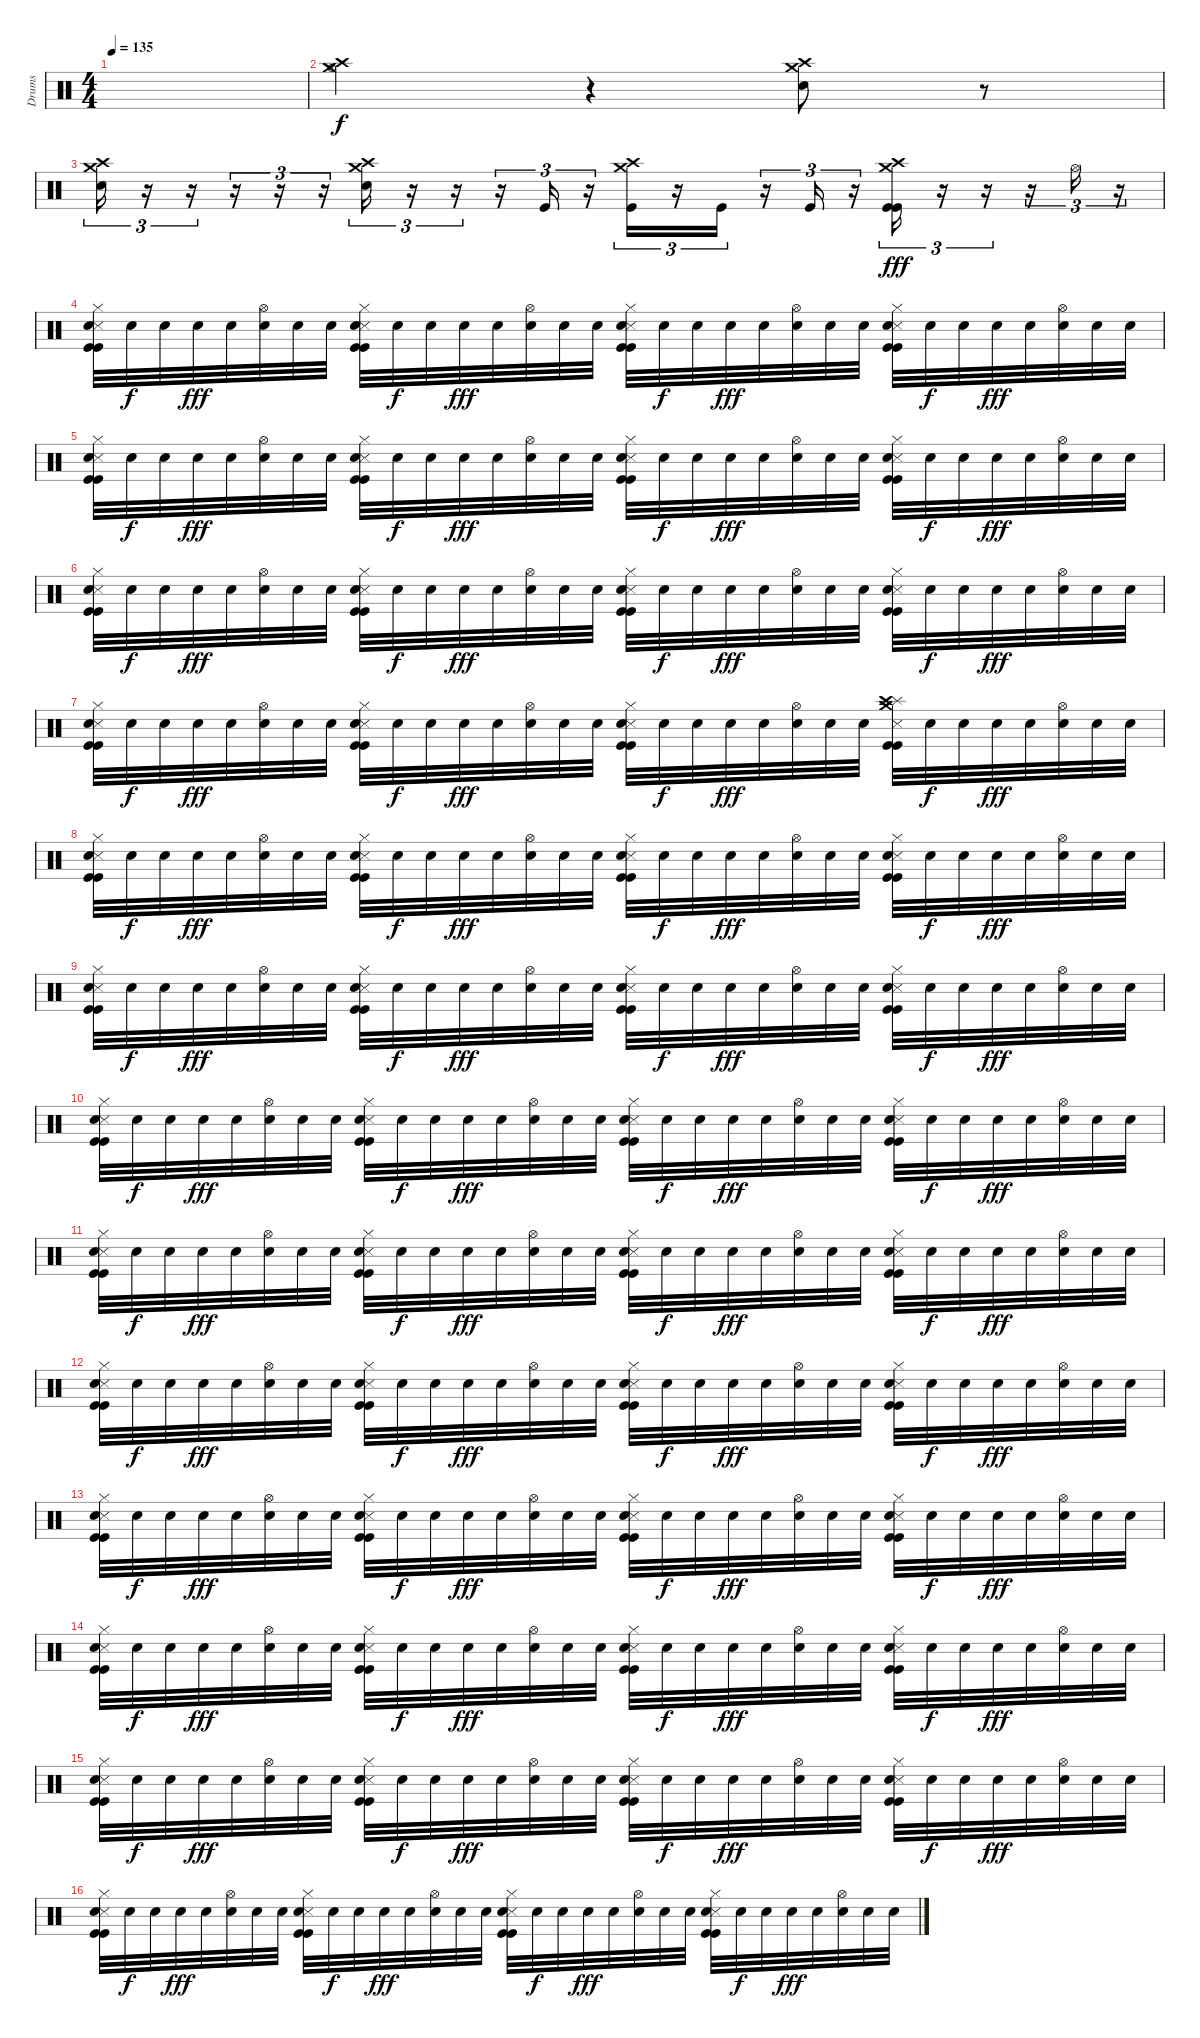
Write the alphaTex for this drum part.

\track ("Drums" "Drums") {instrument percussion bank 24}
\staff
\articulation defaults
\ts (4 4)
\tempo 135
\clef neutral
\ks c
|
("Hi-Hat (open)" "Crash high (hit)" "Crash medium (hit)").2 r.4 ("Crash medium (hit)" "Electric Snare (hit)" "Crash high (hit)").8 r.8 |
("Crash medium (hit)" "Electric Snare (hit)" "Crash high (hit)").16{tu (3 2)} r.16{tu (3 2)} r.16{tu (3 2)} r.16{tu (3 2)} r.16{tu (3 2)} r.16{tu (3 2)} ("Crash medium (hit)" "Electric Snare (hit)" "Crash high (hit)").16{tu (3 2)} r.16{tu (3 2)} r.16{tu (3 2)} r.16{tu (3 2)} "Kick (hit)".16{tu (3 2)} r.16{tu (3 2)} ("Crash high (hit)" "Crash medium (hit)" "Kick (hit)").16{tu (3 2)} r.16{tu (3 2)} "Kick (hit)".16{tu (3 2)} r.16{tu (3 2)} "Kick (hit)".16{tu (3 2)} r.16{tu (3 2)} ("Crash high (hit)" "Crash medium (hit)" "Kick (hit)" "Kick (hit)").16{tu (3 2) dy fff} r.16{tu (3 2)} r.16{tu (3 2)} r.16{tu (3 2)} "Hi-Hat (open)".16{tu (3 2)} r.16{tu (3 2)} |
("Hi-Hat (closed)" "Metronome (hit)" "Kick (hit)" "Kick (hit)" "Snare (hit) 2").32 "Snare (hit)".32{dy f} "Snare (hit)".32 "Snare (hit)".32{dy fff} "Snare (hit)".32 ("Hi-Hat (open)" "Snare (hit)").32 "Snare (hit)".32 "Snare (hit)".32 ("Hi-Hat (closed)" "Metronome (hit)" "Kick (hit)" "Kick (hit)" "Snare (hit)").32 "Snare (hit)".32{dy f} "Snare (hit)".32 "Snare (hit)".32{dy fff} "Snare (hit)".32 ("Hi-Hat (open)" "Snare (hit)").32 "Snare (hit)".32 "Snare (hit)".32 ("Hi-Hat (closed)" "Metronome (hit)" "Kick (hit)" "Kick (hit)" "Snare (hit) 2").32 "Snare (hit)".32{dy f} "Snare (hit)".32 "Snare (hit)".32{dy fff} "Snare (hit)".32 ("Hi-Hat (open)" "Snare (hit)").32 "Snare (hit)".32 "Snare (hit)".32 ("Hi-Hat (closed)" "Metronome (hit)" "Kick (hit)" "Kick (hit)" "Snare (hit)").32 "Snare (hit)".32{dy f} "Snare (hit)".32 "Snare (hit)".32{dy fff} "Snare (hit)".32 ("Hi-Hat (open)" "Snare (hit)").32 "Snare (hit)".32 "Snare (hit)".32 |
("Hi-Hat (closed)" "Metronome (hit)" "Kick (hit)" "Kick (hit)" "Snare (hit) 2").32 "Snare (hit)".32{dy f} "Snare (hit)".32 "Snare (hit)".32{dy fff} "Snare (hit)".32 ("Hi-Hat (open)" "Snare (hit)").32 "Snare (hit)".32 "Snare (hit)".32 ("Hi-Hat (closed)" "Metronome (hit)" "Kick (hit)" "Kick (hit)" "Snare (hit)").32 "Snare (hit)".32{dy f} "Snare (hit)".32 "Snare (hit)".32{dy fff} "Snare (hit)".32 ("Hi-Hat (open)" "Snare (hit)").32 "Snare (hit)".32 "Snare (hit)".32 ("Hi-Hat (closed)" "Metronome (hit)" "Kick (hit)" "Kick (hit)" "Snare (hit) 2").32 "Snare (hit)".32{dy f} "Snare (hit)".32 "Snare (hit)".32{dy fff} "Snare (hit)".32 ("Hi-Hat (open)" "Snare (hit)").32 "Snare (hit)".32 "Snare (hit)".32 ("Hi-Hat (closed)" "Metronome (hit)" "Kick (hit)" "Kick (hit)" "Snare (hit)").32 "Snare (hit)".32{dy f} "Snare (hit)".32 "Snare (hit)".32{dy fff} "Snare (hit)".32 ("Hi-Hat (open)" "Snare (hit)").32 "Snare (hit)".32 "Snare (hit)".32 |
("Hi-Hat (closed)" "Metronome (hit)" "Kick (hit)" "Kick (hit)" "Snare (hit) 2").32 "Snare (hit)".32{dy f} "Snare (hit)".32 "Snare (hit)".32{dy fff} "Snare (hit)".32 ("Hi-Hat (open)" "Snare (hit)").32 "Snare (hit)".32 "Snare (hit)".32 ("Hi-Hat (closed)" "Metronome (hit)" "Kick (hit)" "Kick (hit)" "Snare (hit)").32 "Snare (hit)".32{dy f} "Snare (hit)".32 "Snare (hit)".32{dy fff} "Snare (hit)".32 ("Hi-Hat (open)" "Snare (hit)").32 "Snare (hit)".32 "Snare (hit)".32 ("Hi-Hat (closed)" "Metronome (hit)" "Kick (hit)" "Kick (hit)" "Snare (hit) 2").32 "Snare (hit)".32{dy f} "Snare (hit)".32 "Snare (hit)".32{dy fff} "Snare (hit)".32 ("Hi-Hat (open)" "Snare (hit)").32 "Snare (hit)".32 "Snare (hit)".32 ("Hi-Hat (closed)" "Metronome (hit)" "Kick (hit)" "Kick (hit)" "Snare (hit)").32 "Snare (hit)".32{dy f} "Snare (hit)".32 "Snare (hit)".32{dy fff} "Snare (hit)".32 ("Hi-Hat (open)" "Snare (hit)").32 "Snare (hit)".32 "Snare (hit)".32 |
("Hi-Hat (closed)" "Metronome (hit)" "Kick (hit)" "Kick (hit)" "Snare (hit) 2").32 "Snare (hit)".32{dy f} "Snare (hit)".32 "Snare (hit)".32{dy fff} "Snare (hit)".32 ("Hi-Hat (open)" "Snare (hit)").32 "Snare (hit)".32 "Snare (hit)".32 ("Hi-Hat (closed)" "Metronome (hit)" "Kick (hit)" "Kick (hit)" "Snare (hit)").32 "Snare (hit)".32{dy f} "Snare (hit)".32 "Snare (hit)".32{dy fff} "Snare (hit)".32 ("Hi-Hat (open)" "Snare (hit)").32 "Snare (hit)".32 "Snare (hit)".32 ("Hi-Hat (closed)" "Metronome (hit)" "Kick (hit)" "Kick (hit)" "Snare (hit) 2").32 "Snare (hit)".32{dy f} "Snare (hit)".32 "Snare (hit)".32{dy fff} "Snare (hit)".32 ("Hi-Hat (open)" "Snare (hit)").32 "Snare (hit)".32 "Snare (hit)".32 ("Splash (hit)" "Metronome (hit)" "Kick (hit)" "Kick (hit)" "Crash high (hit)" "Crash medium (hit)").32 "Snare (hit)".32{dy f} "Snare (hit)".32 "Snare (hit)".32{dy fff} "Snare (hit)".32 ("Hi-Hat (open)" "Snare (hit)").32 "Snare (hit)".32 "Snare (hit)".32 |
("Hi-Hat (closed)" "Metronome (hit)" "Kick (hit)" "Kick (hit)" "Snare (hit) 2").32 "Snare (hit)".32{dy f} "Snare (hit)".32 "Snare (hit)".32{dy fff} "Snare (hit)".32 ("Hi-Hat (open)" "Snare (hit)").32 "Snare (hit)".32 "Snare (hit)".32 ("Hi-Hat (closed)" "Metronome (hit)" "Kick (hit)" "Kick (hit)" "Snare (hit)").32 "Snare (hit)".32{dy f} "Snare (hit)".32 "Snare (hit)".32{dy fff} "Snare (hit)".32 ("Hi-Hat (open)" "Snare (hit)").32 "Snare (hit)".32 "Snare (hit)".32 ("Hi-Hat (closed)" "Metronome (hit)" "Kick (hit)" "Kick (hit)" "Snare (hit) 2").32 "Snare (hit)".32{dy f} "Snare (hit)".32 "Snare (hit)".32{dy fff} "Snare (hit)".32 ("Hi-Hat (open)" "Snare (hit)").32 "Snare (hit)".32 "Snare (hit)".32 ("Hi-Hat (closed)" "Metronome (hit)" "Kick (hit)" "Kick (hit)" "Snare (hit)").32 "Snare (hit)".32{dy f} "Snare (hit)".32 "Snare (hit)".32{dy fff} "Snare (hit)".32 ("Hi-Hat (open)" "Snare (hit)").32 "Snare (hit)".32 "Snare (hit)".32 |
("Hi-Hat (closed)" "Metronome (hit)" "Kick (hit)" "Kick (hit)" "Snare (hit) 2").32 "Snare (hit)".32{dy f} "Snare (hit)".32 "Snare (hit)".32{dy fff} "Snare (hit)".32 ("Hi-Hat (open)" "Snare (hit)").32 "Snare (hit)".32 "Snare (hit)".32 ("Hi-Hat (closed)" "Metronome (hit)" "Kick (hit)" "Kick (hit)" "Snare (hit)").32 "Snare (hit)".32{dy f} "Snare (hit)".32 "Snare (hit)".32{dy fff} "Snare (hit)".32 ("Hi-Hat (open)" "Snare (hit)").32 "Snare (hit)".32 "Snare (hit)".32 ("Hi-Hat (closed)" "Metronome (hit)" "Kick (hit)" "Kick (hit)" "Snare (hit) 2").32 "Snare (hit)".32{dy f} "Snare (hit)".32 "Snare (hit)".32{dy fff} "Snare (hit)".32 ("Hi-Hat (open)" "Snare (hit)").32 "Snare (hit)".32 "Snare (hit)".32 ("Hi-Hat (closed)" "Metronome (hit)" "Kick (hit)" "Kick (hit)" "Snare (hit)").32 "Snare (hit)".32{dy f} "Snare (hit)".32 "Snare (hit)".32{dy fff} "Snare (hit)".32 ("Hi-Hat (open)" "Snare (hit)").32 "Snare (hit)".32 "Snare (hit)".32 |
("Hi-Hat (closed)" "Metronome (hit)" "Kick (hit)" "Kick (hit)" "Snare (hit) 2").32 "Snare (hit)".32{dy f} "Snare (hit)".32 "Snare (hit)".32{dy fff} "Snare (hit)".32 ("Hi-Hat (open)" "Snare (hit)").32 "Snare (hit)".32 "Snare (hit)".32 ("Hi-Hat (closed)" "Metronome (hit)" "Kick (hit)" "Kick (hit)" "Snare (hit)").32 "Snare (hit)".32{dy f} "Snare (hit)".32 "Snare (hit)".32{dy fff} "Snare (hit)".32 ("Hi-Hat (open)" "Snare (hit)").32 "Snare (hit)".32 "Snare (hit)".32 ("Hi-Hat (closed)" "Metronome (hit)" "Kick (hit)" "Kick (hit)" "Snare (hit) 2").32 "Snare (hit)".32{dy f} "Snare (hit)".32 "Snare (hit)".32{dy fff} "Snare (hit)".32 ("Hi-Hat (open)" "Snare (hit)").32 "Snare (hit)".32 "Snare (hit)".32 ("Hi-Hat (closed)" "Metronome (hit)" "Kick (hit)" "Kick (hit)" "Snare (hit)").32 "Snare (hit)".32{dy f} "Snare (hit)".32 "Snare (hit)".32{dy fff} "Snare (hit)".32 ("Hi-Hat (open)" "Snare (hit)").32 "Snare (hit)".32 "Snare (hit)".32 |
("Hi-Hat (closed)" "Metronome (hit)" "Kick (hit)" "Kick (hit)" "Snare (hit) 2").32 "Snare (hit)".32{dy f} "Snare (hit)".32 "Snare (hit)".32{dy fff} "Snare (hit)".32 ("Hi-Hat (open)" "Snare (hit)").32 "Snare (hit)".32 "Snare (hit)".32 ("Hi-Hat (closed)" "Metronome (hit)" "Kick (hit)" "Kick (hit)" "Snare (hit)").32 "Snare (hit)".32{dy f} "Snare (hit)".32 "Snare (hit)".32{dy fff} "Snare (hit)".32 ("Hi-Hat (open)" "Snare (hit)").32 "Snare (hit)".32 "Snare (hit)".32 ("Hi-Hat (closed)" "Metronome (hit)" "Kick (hit)" "Kick (hit)" "Snare (hit) 2").32 "Snare (hit)".32{dy f} "Snare (hit)".32 "Snare (hit)".32{dy fff} "Snare (hit)".32 ("Hi-Hat (open)" "Snare (hit)").32 "Snare (hit)".32 "Snare (hit)".32 ("Hi-Hat (closed)" "Metronome (hit)" "Kick (hit)" "Kick (hit)" "Snare (hit)").32 "Snare (hit)".32{dy f} "Snare (hit)".32 "Snare (hit)".32{dy fff} "Snare (hit)".32 ("Hi-Hat (open)" "Snare (hit)").32 "Snare (hit)".32 "Snare (hit)".32 |
("Hi-Hat (closed)" "Metronome (hit)" "Kick (hit)" "Kick (hit)" "Snare (hit) 2").32 "Snare (hit)".32{dy f} "Snare (hit)".32 "Snare (hit)".32{dy fff} "Snare (hit)".32 ("Hi-Hat (open)" "Snare (hit)").32 "Snare (hit)".32 "Snare (hit)".32 ("Hi-Hat (closed)" "Metronome (hit)" "Kick (hit)" "Kick (hit)" "Snare (hit)").32 "Snare (hit)".32{dy f} "Snare (hit)".32 "Snare (hit)".32{dy fff} "Snare (hit)".32 ("Hi-Hat (open)" "Snare (hit)").32 "Snare (hit)".32 "Snare (hit)".32 ("Hi-Hat (closed)" "Metronome (hit)" "Kick (hit)" "Kick (hit)" "Snare (hit) 2").32 "Snare (hit)".32{dy f} "Snare (hit)".32 "Snare (hit)".32{dy fff} "Snare (hit)".32 ("Hi-Hat (open)" "Snare (hit)").32 "Snare (hit)".32 "Snare (hit)".32 ("Hi-Hat (closed)" "Metronome (hit)" "Kick (hit)" "Kick (hit)" "Snare (hit)").32 "Snare (hit)".32{dy f} "Snare (hit)".32 "Snare (hit)".32{dy fff} "Snare (hit)".32 ("Hi-Hat (open)" "Snare (hit)").32 "Snare (hit)".32 "Snare (hit)".32 |
("Hi-Hat (closed)" "Metronome (hit)" "Kick (hit)" "Kick (hit)" "Snare (hit) 2").32 "Snare (hit)".32{dy f} "Snare (hit)".32 "Snare (hit)".32{dy fff} "Snare (hit)".32 ("Hi-Hat (open)" "Snare (hit)").32 "Snare (hit)".32 "Snare (hit)".32 ("Hi-Hat (closed)" "Metronome (hit)" "Kick (hit)" "Kick (hit)" "Snare (hit)").32 "Snare (hit)".32{dy f} "Snare (hit)".32 "Snare (hit)".32{dy fff} "Snare (hit)".32 ("Hi-Hat (open)" "Snare (hit)").32 "Snare (hit)".32 "Snare (hit)".32 ("Hi-Hat (closed)" "Metronome (hit)" "Kick (hit)" "Kick (hit)" "Snare (hit) 2").32 "Snare (hit)".32{dy f} "Snare (hit)".32 "Snare (hit)".32{dy fff} "Snare (hit)".32 ("Hi-Hat (open)" "Snare (hit)").32 "Snare (hit)".32 "Snare (hit)".32 ("Hi-Hat (closed)" "Metronome (hit)" "Kick (hit)" "Kick (hit)" "Snare (hit)").32 "Snare (hit)".32{dy f} "Snare (hit)".32 "Snare (hit)".32{dy fff} "Snare (hit)".32 ("Hi-Hat (open)" "Snare (hit)").32 "Snare (hit)".32 "Snare (hit)".32 |
("Hi-Hat (closed)" "Metronome (hit)" "Kick (hit)" "Kick (hit)" "Snare (hit) 2").32 "Snare (hit)".32{dy f} "Snare (hit)".32 "Snare (hit)".32{dy fff} "Snare (hit)".32 ("Hi-Hat (open)" "Snare (hit)").32 "Snare (hit)".32 "Snare (hit)".32 ("Hi-Hat (closed)" "Metronome (hit)" "Kick (hit)" "Kick (hit)" "Snare (hit)").32 "Snare (hit)".32{dy f} "Snare (hit)".32 "Snare (hit)".32{dy fff} "Snare (hit)".32 ("Hi-Hat (open)" "Snare (hit)").32 "Snare (hit)".32 "Snare (hit)".32 ("Hi-Hat (closed)" "Metronome (hit)" "Kick (hit)" "Kick (hit)" "Snare (hit) 2").32 "Snare (hit)".32{dy f} "Snare (hit)".32 "Snare (hit)".32{dy fff} "Snare (hit)".32 ("Hi-Hat (open)" "Snare (hit)").32 "Snare (hit)".32 "Snare (hit)".32 ("Hi-Hat (closed)" "Metronome (hit)" "Kick (hit)" "Kick (hit)" "Snare (hit)").32 "Snare (hit)".32{dy f} "Snare (hit)".32 "Snare (hit)".32{dy fff} "Snare (hit)".32 ("Hi-Hat (open)" "Snare (hit)").32 "Snare (hit)".32 "Snare (hit)".32 |
("Hi-Hat (closed)" "Metronome (hit)" "Kick (hit)" "Kick (hit)" "Snare (hit) 2").32 "Snare (hit)".32{dy f} "Snare (hit)".32 "Snare (hit)".32{dy fff} "Snare (hit)".32 ("Hi-Hat (open)" "Snare (hit)").32 "Snare (hit)".32 "Snare (hit)".32 ("Hi-Hat (closed)" "Metronome (hit)" "Kick (hit)" "Kick (hit)" "Snare (hit)").32 "Snare (hit)".32{dy f} "Snare (hit)".32 "Snare (hit)".32{dy fff} "Snare (hit)".32 ("Hi-Hat (open)" "Snare (hit)").32 "Snare (hit)".32 "Snare (hit)".32 ("Hi-Hat (closed)" "Metronome (hit)" "Kick (hit)" "Kick (hit)" "Snare (hit) 2").32 "Snare (hit)".32{dy f} "Snare (hit)".32 "Snare (hit)".32{dy fff} "Snare (hit)".32 ("Hi-Hat (open)" "Snare (hit)").32 "Snare (hit)".32 "Snare (hit)".32 ("Hi-Hat (closed)" "Metronome (hit)" "Kick (hit)" "Kick (hit)" "Snare (hit)").32 "Snare (hit)".32{dy f} "Snare (hit)".32 "Snare (hit)".32{dy fff} "Snare (hit)".32 ("Hi-Hat (open)" "Snare (hit)").32 "Snare (hit)".32 "Snare (hit)".32 |
("Hi-Hat (closed)" "Metronome (hit)" "Kick (hit)" "Kick (hit)" "Snare (hit) 2").32 "Snare (hit)".32{dy f} "Snare (hit)".32 "Snare (hit)".32{dy fff} "Snare (hit)".32 ("Hi-Hat (open)" "Snare (hit)").32 "Snare (hit)".32 "Snare (hit)".32 ("Hi-Hat (closed)" "Metronome (hit)" "Kick (hit)" "Kick (hit)" "Snare (hit)").32 "Snare (hit)".32{dy f} "Snare (hit)".32 "Snare (hit)".32{dy fff} "Snare (hit)".32 ("Hi-Hat (open)" "Snare (hit)").32 "Snare (hit)".32 "Snare (hit)".32 ("Hi-Hat (closed)" "Metronome (hit)" "Kick (hit)" "Kick (hit)" "Snare (hit) 2").32 "Snare (hit)".32{dy f} "Snare (hit)".32 "Snare (hit)".32{dy fff} "Snare (hit)".32 ("Hi-Hat (open)" "Snare (hit)").32 "Snare (hit)".32 "Snare (hit)".32 ("Hi-Hat (closed)" "Metronome (hit)" "Kick (hit)" "Kick (hit)" "Snare (hit)").32 "Snare (hit)".32{dy f} "Snare (hit)".32 "Snare (hit)".32{dy fff} "Snare (hit)".32 ("Hi-Hat (open)" "Snare (hit)").32 "Snare (hit)".32 "Snare (hit)".32
